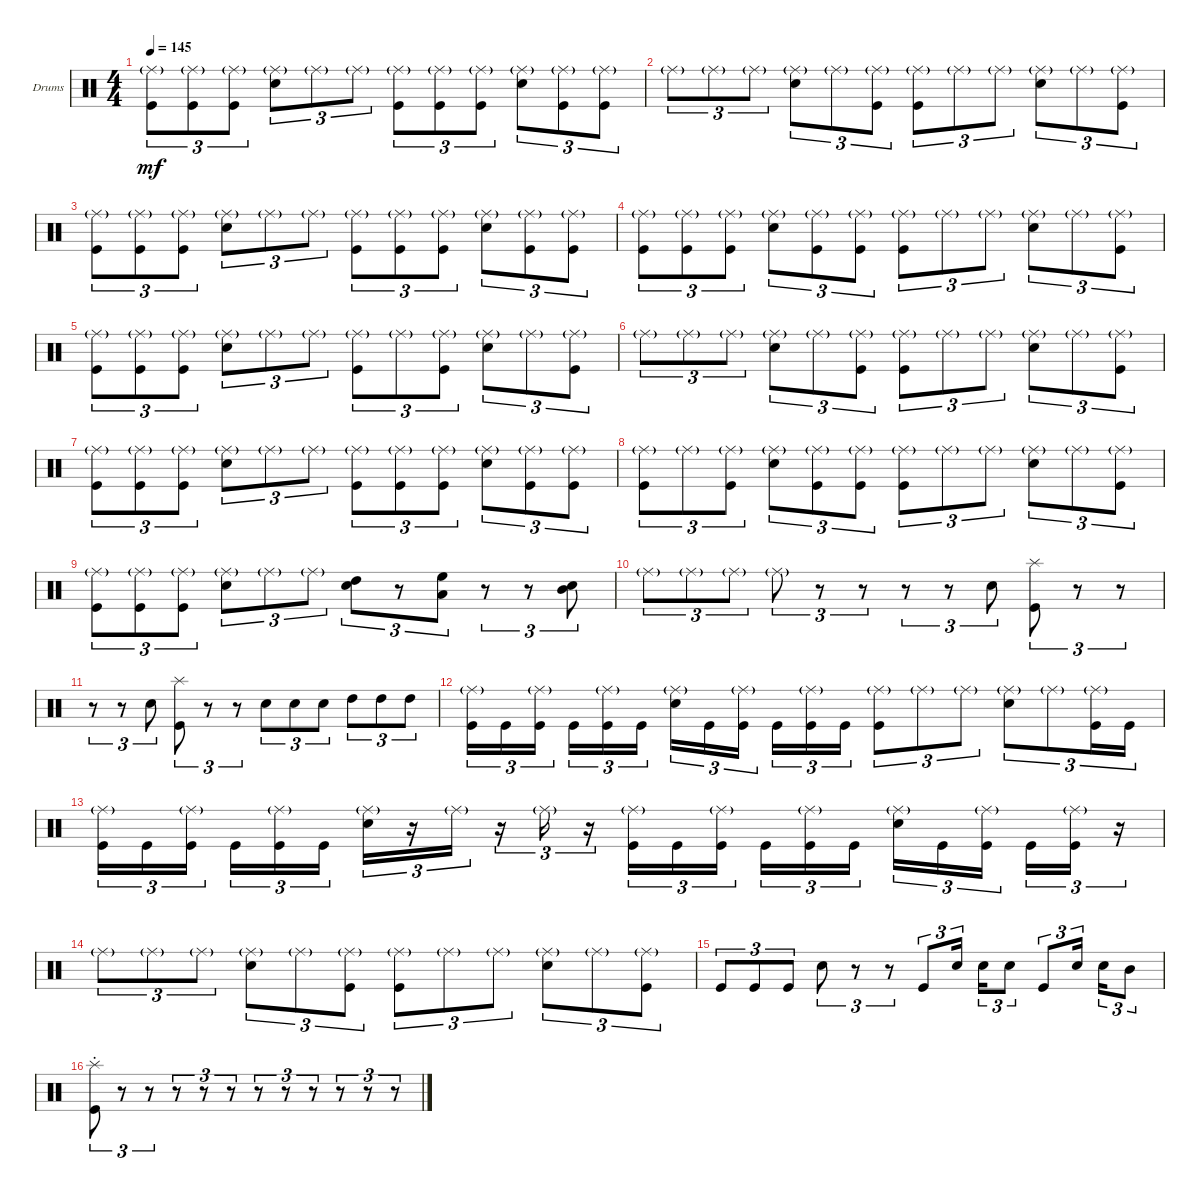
\bracketExtendMode groupsimilarinstruments
\firstSystemTrackNameOrientation horizontal
\otherSystemsTrackNameOrientation horizontal
\track ("Drumkit" "Drums") {instrument percussion}
\staff {score}
\articulation defaults
\ts (4 4)
\tempo 145
\clef neutral
\ks c
("Kick (hit)" "Ride (middle)"{g}).8{tu (3 2) dy mf} ("Kick (hit)" "Ride (middle)"{g}).8{tu (3 2)} ("Kick (hit)" "Ride (middle)"{g}).8{tu (3 2)} ("Snare (hit) 2" "Ride (middle)"{g}).8{tu (3 2)} "Ride (middle)"{g}.8{tu (3 2)} "Ride (middle)"{g}.8{tu (3 2)} ("Kick (hit)" "Ride (middle)"{g}).8{tu (3 2)} ("Kick (hit)" "Ride (middle)"{g}).8{tu (3 2)} ("Kick (hit)" "Ride (middle)"{g}).8{tu (3 2)} ("Snare (hit) 2" "Ride (middle)"{g}).8{tu (3 2)} ("Kick (hit)" "Ride (middle)"{g}).8{tu (3 2)} ("Kick (hit)" "Ride (middle)"{g}).8{tu (3 2)} |
"Ride (middle)"{g}.8{tu (3 2)} "Ride (middle)"{g}.8{tu (3 2)} "Ride (middle)"{g}.8{tu (3 2)} ("Snare (hit) 2" "Ride (middle)"{g}).8{tu (3 2)} "Ride (middle)"{g}.8{tu (3 2)} ("Kick (hit)" "Ride (middle)"{g}).8{tu (3 2)} ("Kick (hit)" "Ride (middle)"{g}).8{tu (3 2)} "Ride (middle)"{g}.8{tu (3 2)} "Ride (middle)"{g}.8{tu (3 2)} ("Snare (hit) 2" "Ride (middle)"{g}).8{tu (3 2)} "Ride (middle)"{g}.8{tu (3 2)} ("Kick (hit)" "Ride (middle)"{g}).8{tu (3 2)} |
("Kick (hit)" "Ride (middle)"{g}).8{tu (3 2)} ("Kick (hit)" "Ride (middle)"{g}).8{tu (3 2)} ("Kick (hit)" "Ride (middle)"{g}).8{tu (3 2)} ("Snare (hit) 2" "Ride (middle)"{g}).8{tu (3 2)} "Ride (middle)"{g}.8{tu (3 2)} "Ride (middle)"{g}.8{tu (3 2)} ("Kick (hit)" "Ride (middle)"{g}).8{tu (3 2)} ("Kick (hit)" "Ride (middle)"{g}).8{tu (3 2)} ("Kick (hit)" "Ride (middle)"{g}).8{tu (3 2)} ("Snare (hit) 2" "Ride (middle)"{g}).8{tu (3 2)} ("Kick (hit)" "Ride (middle)"{g}).8{tu (3 2)} ("Kick (hit)" "Ride (middle)"{g}).8{tu (3 2)} |
("Kick (hit)" "Ride (middle)"{g}).8{tu (3 2)} ("Kick (hit)" "Ride (middle)"{g}).8{tu (3 2)} ("Kick (hit)" "Ride (middle)"{g}).8{tu (3 2)} ("Snare (hit) 2" "Ride (middle)"{g}).8{tu (3 2)} ("Kick (hit)" "Ride (middle)"{g}).8{tu (3 2)} ("Kick (hit)" "Ride (middle)"{g}).8{tu (3 2)} ("Kick (hit)" "Ride (middle)"{g}).8{tu (3 2)} "Ride (middle)"{g}.8{tu (3 2)} "Ride (middle)"{g}.8{tu (3 2)} ("Snare (hit) 2" "Ride (middle)"{g}).8{tu (3 2)} "Ride (middle)"{g}.8{tu (3 2)} ("Kick (hit)" "Ride (middle)"{g}).8{tu (3 2)} |
("Kick (hit)" "Ride (middle)"{g}).8{tu (3 2)} ("Kick (hit)" "Ride (middle)"{g}).8{tu (3 2)} ("Kick (hit)" "Ride (middle)"{g}).8{tu (3 2)} ("Snare (hit) 2" "Ride (middle)"{g}).8{tu (3 2)} "Ride (middle)"{g}.8{tu (3 2)} "Ride (middle)"{g}.8{tu (3 2)} ("Kick (hit)" "Ride (middle)"{g}).8{tu (3 2)} "Ride (middle)"{g}.8{tu (3 2)} ("Kick (hit)" "Ride (middle)"{g}).8{tu (3 2)} ("Snare (hit) 2" "Ride (middle)"{g}).8{tu (3 2)} "Ride (middle)"{g}.8{tu (3 2)} ("Kick (hit)" "Ride (middle)"{g}).8{tu (3 2)} |
"Ride (middle)"{g}.8{tu (3 2)} "Ride (middle)"{g}.8{tu (3 2)} "Ride (middle)"{g}.8{tu (3 2)} ("Snare (hit) 2" "Ride (middle)"{g}).8{tu (3 2)} "Ride (middle)"{g}.8{tu (3 2)} ("Kick (hit)" "Ride (middle)"{g}).8{tu (3 2)} ("Kick (hit)" "Ride (middle)"{g}).8{tu (3 2)} "Ride (middle)"{g}.8{tu (3 2)} "Ride (middle)"{g}.8{tu (3 2)} ("Snare (hit) 2" "Ride (middle)"{g}).8{tu (3 2)} "Ride (middle)"{g}.8{tu (3 2)} ("Kick (hit)" "Ride (middle)"{g}).8{tu (3 2)} |
("Kick (hit)" "Ride (middle)"{g}).8{tu (3 2)} ("Kick (hit)" "Ride (middle)"{g}).8{tu (3 2)} ("Kick (hit)" "Ride (middle)"{g}).8{tu (3 2)} ("Snare (hit) 2" "Ride (middle)"{g}).8{tu (3 2)} "Ride (middle)"{g}.8{tu (3 2)} "Ride (middle)"{g}.8{tu (3 2)} ("Kick (hit)" "Ride (middle)"{g}).8{tu (3 2)} ("Kick (hit)" "Ride (middle)"{g}).8{tu (3 2)} ("Kick (hit)" "Ride (middle)"{g}).8{tu (3 2)} ("Snare (hit) 2" "Ride (middle)"{g}).8{tu (3 2)} ("Kick (hit)" "Ride (middle)"{g}).8{tu (3 2)} ("Kick (hit)" "Ride (middle)"{g}).8{tu (3 2)} |
("Kick (hit)" "Ride (middle)"{g}).8{tu (3 2)} "Ride (middle)"{g}.8{tu (3 2)} ("Kick (hit)" "Ride (middle)"{g}).8{tu (3 2)} ("Snare (hit) 2" "Ride (middle)"{g}).8{tu (3 2)} ("Kick (hit)" "Ride (middle)"{g}).8{tu (3 2)} ("Kick (hit)" "Ride (middle)"{g}).8{tu (3 2)} ("Kick (hit)" "Ride (middle)"{g}).8{tu (3 2)} "Ride (middle)"{g}.8{tu (3 2)} "Ride (middle)"{g}.8{tu (3 2)} ("Snare (hit) 2" "Ride (middle)"{g}).8{tu (3 2)} "Ride (middle)"{g}.8{tu (3 2)} ("Kick (hit)" "Ride (middle)"{g}).8{tu (3 2)} |
("Kick (hit)" "Ride (middle)"{g}).8{tu (3 2)} ("Kick (hit)" "Ride (middle)"{g}).8{tu (3 2)} ("Kick (hit)" "Ride (middle)"{g}).8{tu (3 2)} ("Snare (hit) 2" "Ride (middle)"{g}).8{tu (3 2)} "Ride (middle)"{g}.8{tu (3 2)} "Ride (middle)"{g}.8{tu (3 2)} ("Snare (hit) 2" "High Tom (hit)").8{tu (3 2)} r.8{tu (3 2)} ("Low Tom (hit)" "High Floor Tom (hit)").8{tu (3 2)} r.8{tu (3 2)} r.8{tu (3 2)} ("Snare (hit) 2" "Mid Tom (hit)").8{tu (3 2)} |
"Ride (middle)"{g}.8{tu (3 2)} "Ride (middle)"{g}.8{tu (3 2)} "Ride (middle)"{g}.8{tu (3 2)} "Ride (middle)"{g}.8{tu (3 2)} r.8{tu (3 2)} r.8{tu (3 2)} r.8{tu (3 2)} r.8{tu (3 2)} "Snare (hit) 2".8{tu (3 2)} ("Kick (hit)" "Splash (hit)").8{tu (3 2)} r.8{tu (3 2)} r.8{tu (3 2)} |
r.8{tu (3 2)} r.8{tu (3 2)} "Snare (hit) 2".8{tu (3 2)} ("Kick (hit)" "Splash (hit)").8{tu (3 2)} r.8{tu (3 2)} r.8{tu (3 2)} "Snare (hit) 2".8{tu (3 2)} "Snare (hit) 2".8{tu (3 2)} "Snare (hit) 2".8{tu (3 2)} "High Tom (hit)".8{tu (3 2)} "High Tom (hit)".8{tu (3 2)} "High Tom (hit)".8{tu (3 2)} |
("Kick (hit)" "Ride (middle)"{g}).16{tu (3 2)} "Kick (hit)".16{tu (3 2)} ("Kick (hit)" "Ride (middle)"{g}).16{tu (3 2)} "Kick (hit)".16{tu (3 2)} ("Kick (hit)" "Ride (middle)"{g}).16{tu (3 2)} "Kick (hit)".16{tu (3 2)} ("Snare (hit) 2" "Ride (middle)"{g}).16{tu (3 2)} "Kick (hit)".16{tu (3 2)} ("Kick (hit)" "Ride (middle)"{g}).16{tu (3 2)} "Kick (hit)".16{tu (3 2)} ("Kick (hit)" "Ride (middle)"{g}).16{tu (3 2)} "Kick (hit)".16{tu (3 2)} ("Kick (hit)" "Ride (middle)"{g}).8{tu (3 2)} "Ride (middle)"{g}.8{tu (3 2)} "Ride (middle)"{g}.8{tu (3 2)} ("Snare (hit) 2" "Ride (middle)"{g}).8{tu (3 2)} "Ride (middle)"{g}.8{tu (3 2)} ("Kick (hit)" "Ride (middle)"{g}).16{tu (3 2)} "Kick (hit)".16{tu (3 2)} |
("Kick (hit)" "Ride (middle)"{g}).16{tu (3 2)} "Kick (hit)".16{tu (3 2)} ("Kick (hit)" "Ride (middle)"{g}).16{tu (3 2)} "Kick (hit)".16{tu (3 2)} ("Kick (hit)" "Ride (middle)"{g}).16{tu (3 2)} "Kick (hit)".16{tu (3 2)} ("Snare (hit) 2" "Ride (middle)"{g}).16{tu (3 2)} r.16{tu (3 2)} "Ride (middle)"{g}.16{tu (3 2)} r.16{tu (3 2)} "Ride (middle)"{g}.16{tu (3 2)} r.16{tu (3 2)} ("Kick (hit)" "Ride (middle)"{g}).16{tu (3 2)} "Kick (hit)".16{tu (3 2)} ("Kick (hit)" "Ride (middle)"{g}).16{tu (3 2)} "Kick (hit)".16{tu (3 2)} ("Kick (hit)" "Ride (middle)"{g}).16{tu (3 2)} "Kick (hit)".16{tu (3 2)} ("Snare (hit) 2" "Ride (middle)"{g}).16{tu (3 2)} "Kick (hit)".16{tu (3 2)} ("Kick (hit)" "Ride (middle)"{g}).16{tu (3 2)} "Kick (hit)".16{tu (3 2)} ("Kick (hit)" "Ride (middle)"{g}).16{tu (3 2)} r.16{tu (3 2)} |
"Ride (middle)"{g}.8{tu (3 2)} "Ride (middle)"{g}.8{tu (3 2)} "Ride (middle)"{g}.8{tu (3 2)} ("Snare (hit) 2" "Ride (middle)"{g}).8{tu (3 2)} "Ride (middle)"{g}.8{tu (3 2)} ("Kick (hit)" "Ride (middle)"{g}).8{tu (3 2)} ("Kick (hit)" "Ride (middle)"{g}).8{tu (3 2)} "Ride (middle)"{g}.8{tu (3 2)} "Ride (middle)"{g}.8{tu (3 2)} ("Snare (hit) 2" "Ride (middle)"{g}).8{tu (3 2)} "Ride (middle)"{g}.8{tu (3 2)} ("Kick (hit)" "Ride (middle)"{g}).8{tu (3 2)} |
"Kick (hit)".8{tu (3 2)} "Kick (hit)".8{tu (3 2)} "Kick (hit)".8{tu (3 2)} "Snare (hit) 2".8{tu (3 2)} r.8{tu (3 2)} r.8{tu (3 2)} "Kick (hit)".8{tu (3 2)} "Snare (hit) 2".16{tu (3 2)} "Snare (hit) 2".16{tu (3 2)} "Snare (hit) 2".8{tu (3 2)} "Kick (hit)".8{tu (3 2)} "Snare (hit) 2".16{tu (3 2)} "Snare (hit) 2".16{tu (3 2)} "Mid Tom (hit)".8{tu (3 2)} |
("Kick (hit)" "Splash (hit)"{st}).8{tu (3 2)} r.8{tu (3 2)} r.8{tu (3 2)} r.8{tu (3 2)} r.8{tu (3 2)} r.8{tu (3 2)} r.8{tu (3 2)} r.8{tu (3 2)} r.8{tu (3 2)} r.8{tu (3 2)} r.8{tu (3 2)} r.8{tu (3 2)}
